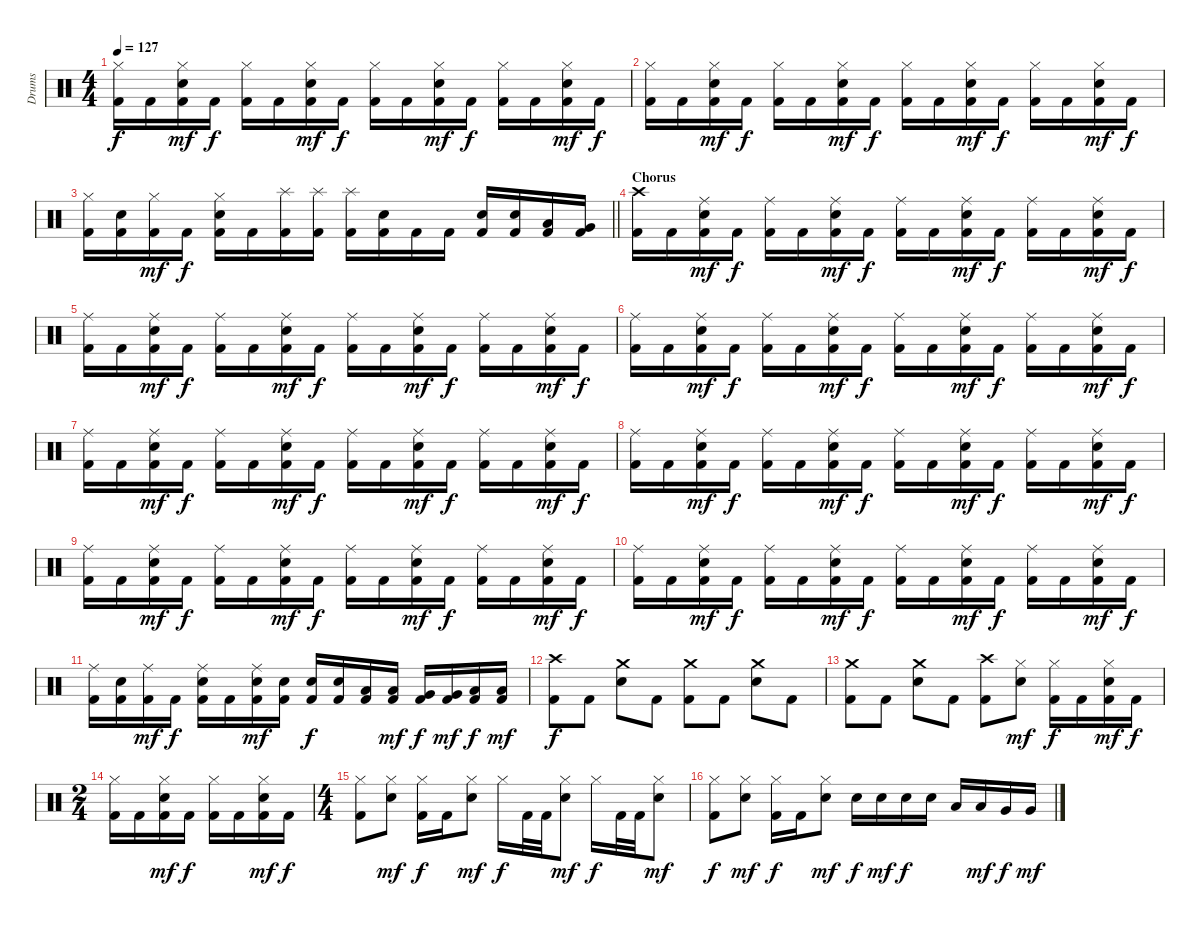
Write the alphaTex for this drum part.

\track ("Drums" "Drums") {instrument percussion}
\staff {score}
\articulation defaults
\ts (4 4)
\tempo 127
\clef neutral
\ks c
("Kick (hit) 2" "Hi-Hat (closed)").16{dy f} "Kick (hit) 2".16 ("Kick (hit) 2" "Hi-Hat (closed)" "Electric Snare (hit)").16{dy mf} "Kick (hit) 2".16{dy f} ("Kick (hit) 2" "Hi-Hat (closed)").16 "Kick (hit) 2".16 ("Kick (hit) 2" "Hi-Hat (closed)" "Electric Snare (hit)").16{dy mf} "Kick (hit) 2".16{dy f} ("Kick (hit) 2" "Hi-Hat (closed)").16 "Kick (hit) 2".16 ("Kick (hit) 2" "Hi-Hat (closed)" "Electric Snare (hit)").16{dy mf} "Kick (hit) 2".16{dy f} ("Kick (hit) 2" "Hi-Hat (closed)").16 "Kick (hit) 2".16 ("Kick (hit) 2" "Hi-Hat (closed)" "Electric Snare (hit)").16{dy mf} "Kick (hit) 2".16{dy f} |
("Kick (hit) 2" "Hi-Hat (closed)").16 "Kick (hit) 2".16 ("Kick (hit) 2" "Hi-Hat (closed)" "Electric Snare (hit)").16{dy mf} "Kick (hit) 2".16{dy f} ("Kick (hit) 2" "Hi-Hat (closed)").16 "Kick (hit) 2".16 ("Kick (hit) 2" "Hi-Hat (closed)" "Electric Snare (hit)").16{dy mf} "Kick (hit) 2".16{dy f} ("Kick (hit) 2" "Hi-Hat (closed)").16 "Kick (hit) 2".16 ("Kick (hit) 2" "Hi-Hat (closed)" "Electric Snare (hit)").16{dy mf} "Kick (hit) 2".16{dy f} ("Kick (hit) 2" "Hi-Hat (closed)").16 "Kick (hit) 2".16 ("Kick (hit) 2" "Hi-Hat (closed)" "Electric Snare (hit)").16{dy mf} "Kick (hit) 2".16{dy f} |
\barLineRight lightlight
("Kick (hit) 2" "Hi-Hat (closed)").16 ("Kick (hit) 2" "Electric Snare (hit)").16 ("Kick (hit) 2" "Hi-Hat (closed)").16{dy mf} "Kick (hit) 2".16{dy f} ("Kick (hit) 2" "Hi-Hat (closed)" "Electric Snare (hit)").16 "Kick (hit) 2".16 ("Kick (hit) 2" "Splash (hit)").16 ("Kick (hit) 2" "Splash (hit)").16 ("Kick (hit) 2" "Splash (hit)").16 ("Kick (hit) 2" "Electric Snare (hit)").16 "Kick (hit) 2".16 "Kick (hit) 2".16 ("Kick (hit) 2" "Electric Snare (hit)").16 ("Kick (hit) 2" "Electric Snare (hit)").16 ("Kick (hit) 2" "Low Tom (hit)").16 ("Kick (hit) 2" "Very Low Tom (hit)").16 |
\section ("" "Chorus")
("Kick (hit) 2" "Crash high (hit)").16 "Kick (hit) 2".16 ("Kick (hit) 2" "Ride (middle)" "Electric Snare (hit)").16{dy mf} "Kick (hit) 2".16{dy f} ("Kick (hit) 2" "Ride (middle)").16 "Kick (hit) 2".16 ("Kick (hit) 2" "Ride (middle)" "Electric Snare (hit)").16{dy mf} "Kick (hit) 2".16{dy f} ("Kick (hit) 2" "Ride (middle)").16 "Kick (hit) 2".16 ("Kick (hit) 2" "Ride (middle)" "Electric Snare (hit)").16{dy mf} "Kick (hit) 2".16{dy f} ("Kick (hit) 2" "Ride (middle)").16 "Kick (hit) 2".16 ("Kick (hit) 2" "Ride (middle)" "Electric Snare (hit)").16{dy mf} "Kick (hit) 2".16{dy f} |
("Kick (hit) 2" "Ride (middle)").16 "Kick (hit) 2".16 ("Kick (hit) 2" "Ride (middle)" "Electric Snare (hit)").16{dy mf} "Kick (hit) 2".16{dy f} ("Kick (hit) 2" "Ride (middle)").16 "Kick (hit) 2".16 ("Kick (hit) 2" "Ride (middle)" "Electric Snare (hit)").16{dy mf} "Kick (hit) 2".16{dy f} ("Kick (hit) 2" "Ride (middle)").16 "Kick (hit) 2".16 ("Kick (hit) 2" "Ride (middle)" "Electric Snare (hit)").16{dy mf} "Kick (hit) 2".16{dy f} ("Kick (hit) 2" "Ride (middle)").16 "Kick (hit) 2".16 ("Kick (hit) 2" "Ride (middle)" "Electric Snare (hit)").16{dy mf} "Kick (hit) 2".16{dy f} |
("Kick (hit) 2" "Ride (middle)").16 "Kick (hit) 2".16 ("Kick (hit) 2" "Ride (middle)" "Electric Snare (hit)").16{dy mf} "Kick (hit) 2".16{dy f} ("Kick (hit) 2" "Ride (middle)").16 "Kick (hit) 2".16 ("Kick (hit) 2" "Ride (middle)" "Electric Snare (hit)").16{dy mf} "Kick (hit) 2".16{dy f} ("Kick (hit) 2" "Ride (middle)").16 "Kick (hit) 2".16 ("Kick (hit) 2" "Ride (middle)" "Electric Snare (hit)").16{dy mf} "Kick (hit) 2".16{dy f} ("Kick (hit) 2" "Ride (middle)").16 "Kick (hit) 2".16 ("Kick (hit) 2" "Ride (middle)" "Electric Snare (hit)").16{dy mf} "Kick (hit) 2".16{dy f} |
("Kick (hit) 2" "Ride (middle)").16 "Kick (hit) 2".16 ("Kick (hit) 2" "Ride (middle)" "Electric Snare (hit)").16{dy mf} "Kick (hit) 2".16{dy f} ("Kick (hit) 2" "Ride (middle)").16 "Kick (hit) 2".16 ("Kick (hit) 2" "Ride (middle)" "Electric Snare (hit)").16{dy mf} "Kick (hit) 2".16{dy f} ("Kick (hit) 2" "Ride (middle)").16 "Kick (hit) 2".16 ("Kick (hit) 2" "Ride (middle)" "Electric Snare (hit)").16{dy mf} "Kick (hit) 2".16{dy f} ("Kick (hit) 2" "Ride (middle)").16 "Kick (hit) 2".16 ("Kick (hit) 2" "Ride (middle)" "Electric Snare (hit)").16{dy mf} "Kick (hit) 2".16{dy f} |
("Kick (hit) 2" "Ride (middle)").16 "Kick (hit) 2".16 ("Kick (hit) 2" "Ride (middle)" "Electric Snare (hit)").16{dy mf} "Kick (hit) 2".16{dy f} ("Kick (hit) 2" "Ride (middle)").16 "Kick (hit) 2".16 ("Kick (hit) 2" "Ride (middle)" "Electric Snare (hit)").16{dy mf} "Kick (hit) 2".16{dy f} ("Kick (hit) 2" "Ride (middle)").16 "Kick (hit) 2".16 ("Kick (hit) 2" "Ride (middle)" "Electric Snare (hit)").16{dy mf} "Kick (hit) 2".16{dy f} ("Kick (hit) 2" "Ride (middle)").16 "Kick (hit) 2".16 ("Kick (hit) 2" "Ride (middle)" "Electric Snare (hit)").16{dy mf} "Kick (hit) 2".16{dy f} |
("Kick (hit) 2" "Ride (middle)").16 "Kick (hit) 2".16 ("Kick (hit) 2" "Ride (middle)" "Electric Snare (hit)").16{dy mf} "Kick (hit) 2".16{dy f} ("Kick (hit) 2" "Ride (middle)").16 "Kick (hit) 2".16 ("Kick (hit) 2" "Ride (middle)" "Electric Snare (hit)").16{dy mf} "Kick (hit) 2".16{dy f} ("Kick (hit) 2" "Ride (middle)").16 "Kick (hit) 2".16 ("Kick (hit) 2" "Ride (middle)" "Electric Snare (hit)").16{dy mf} "Kick (hit) 2".16{dy f} ("Kick (hit) 2" "Ride (middle)").16 "Kick (hit) 2".16 ("Kick (hit) 2" "Ride (middle)" "Electric Snare (hit)").16{dy mf} "Kick (hit) 2".16{dy f} |
("Kick (hit) 2" "Ride (middle)").16 "Kick (hit) 2".16 ("Kick (hit) 2" "Ride (middle)" "Electric Snare (hit)").16{dy mf} "Kick (hit) 2".16{dy f} ("Kick (hit) 2" "Ride (middle)").16 "Kick (hit) 2".16 ("Kick (hit) 2" "Ride (middle)" "Electric Snare (hit)").16{dy mf} "Kick (hit) 2".16{dy f} ("Kick (hit) 2" "Ride (middle)").16 "Kick (hit) 2".16 ("Kick (hit) 2" "Ride (middle)" "Electric Snare (hit)").16{dy mf} "Kick (hit) 2".16{dy f} ("Kick (hit) 2" "Ride (middle)").16 "Kick (hit) 2".16 ("Kick (hit) 2" "Ride (middle)" "Electric Snare (hit)").16{dy mf} "Kick (hit) 2".16{dy f} |
("Kick (hit) 2" "Ride (middle)").16 ("Kick (hit) 2" "Electric Snare (hit)").16 ("Kick (hit) 2" "Ride (middle)").16{dy mf} "Kick (hit) 2".16{dy f} ("Kick (hit) 2" "Ride (middle)" "Electric Snare (hit)").16 "Kick (hit) 2".16 ("Kick (hit) 2" "Ride (middle)" "Electric Snare (hit)").16{dy mf} ("Kick (hit) 2" "Electric Snare (hit)").16 ("Kick (hit) 2" "Electric Snare (hit)").16{dy f} ("Kick (hit) 2" "Electric Snare (hit)").16 ("Kick (hit) 2" "Low Tom (hit)").16 ("Kick (hit) 2" "Low Tom (hit)").16{dy mf} ("Kick (hit) 2" "Very Low Tom (hit)").16{dy f} ("Kick (hit) 2" "Very Low Tom (hit)").16{dy mf} ("Kick (hit) 2" "Low Floor Tom (hit)").16{dy f} ("Kick (hit) 2" "Low Floor Tom (hit)").16{dy mf} |
("Kick (hit) 2" "Crash high (hit)").8{dy f} "Kick (hit) 2".8 ("Crash medium (hit)" "Electric Snare (hit)").8 "Kick (hit) 2".8 ("Kick (hit) 2" "Crash medium (hit)").8 "Kick (hit) 2".8 ("Crash medium (hit)" "Electric Snare (hit)").8 "Kick (hit) 2".8 |
("Kick (hit) 2" "Crash medium (hit)").8 "Kick (hit) 2".8 ("Crash medium (hit)" "Electric Snare (hit)").8 "Kick (hit) 2".8 ("Kick (hit) 2" "Crash high (hit)").8 ("Hi-Hat (closed)" "Electric Snare (hit)").8{dy mf} ("Kick (hit) 2" "Hi-Hat (closed)").16{dy f} "Kick (hit) 2".16 ("Kick (hit) 2" "Hi-Hat (closed)" "Electric Snare (hit)").16{dy mf} "Kick (hit) 2".16{dy f} |
\ts (2 4)
("Kick (hit) 2" "Hi-Hat (closed)").16 "Kick (hit) 2".16 ("Kick (hit) 2" "Hi-Hat (closed)" "Electric Snare (hit)").16{dy mf} "Kick (hit) 2".16{dy f} ("Kick (hit) 2" "Hi-Hat (closed)").16 "Kick (hit) 2".16 ("Kick (hit) 2" "Hi-Hat (closed)" "Electric Snare (hit)").16{dy mf} "Kick (hit) 2".16{dy f} |
\ts (4 4)
("Kick (hit) 2" "Hi-Hat (closed)").8 ("Hi-Hat (closed)" "Electric Snare (hit)").8{dy mf} ("Kick (hit) 2" "Hi-Hat (closed)").16{dy f} "Kick (hit) 2".16 ("Hi-Hat (closed)" "Electric Snare (hit)").8{dy mf} "Hi-Hat (closed)".16{dy f} "Kick (hit) 2".32 "Kick (hit) 2".32 ("Hi-Hat (closed)" "Electric Snare (hit)").8{dy mf} "Hi-Hat (closed)".16{dy f} "Kick (hit) 2".32 "Kick (hit) 2".32 ("Hi-Hat (closed)" "Electric Snare (hit)").8{dy mf} |
("Kick (hit) 2" "Hi-Hat (closed)").8{dy f} ("Hi-Hat (closed)" "Electric Snare (hit)").8{dy mf} ("Kick (hit) 2" "Hi-Hat (closed)").16{dy f} "Kick (hit) 2".16 ("Hi-Hat (closed)" "Electric Snare (hit)").8{dy mf} "Electric Snare (hit)".16{dy f} "Electric Snare (hit)".16{dy mf} "Electric Snare (hit)".16{dy f} "Electric Snare (hit)".16 "Low Tom (hit)".16 "Low Tom (hit)".16{dy mf} "Very Low Tom (hit)".16{dy f} "Very Low Tom (hit)".16{dy mf}
